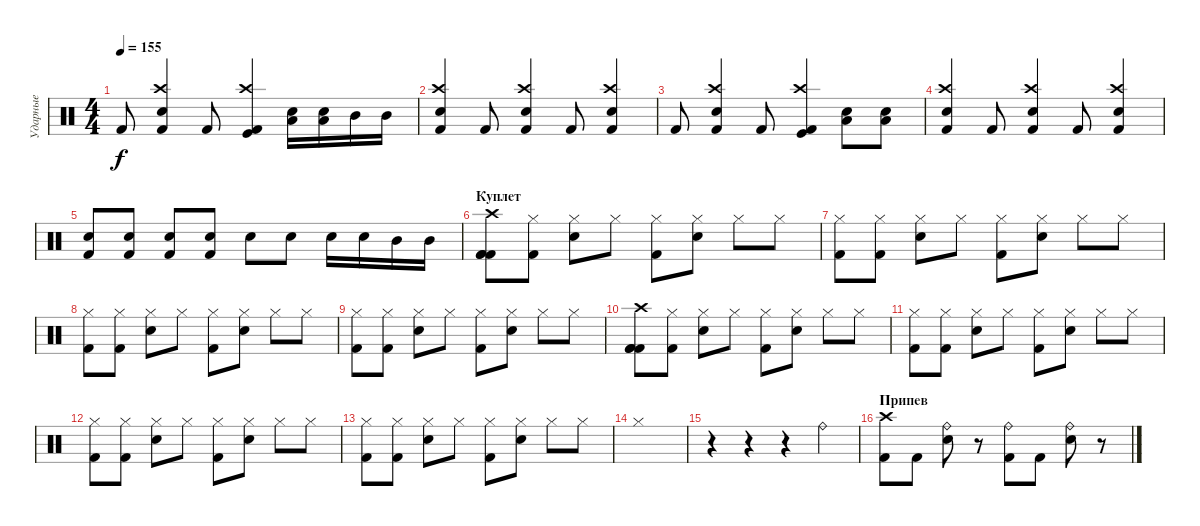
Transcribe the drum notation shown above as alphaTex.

\track ("Ударные" "Ударные") {instrument percussion}
\staff {score}
\articulation defaults
\ts (4 4)
\tempo 155
\clef neutral
\ks c "Kick (hit) 2".8{dy f}
("Crash high (hit)" "Kick (hit) 2" "Snare (hit) 2").4 "Kick (hit) 2".8 ("Crash high (hit)" "Kick (hit) 2" "Kick (hit)").4 ("Low Floor Tom (hit)" "Snare (hit) 2").16 ("Low Floor Tom (hit)" "Snare (hit) 2").16 "Mid Tom (hit)".16 "Mid Tom (hit)".16 |
("Crash high (hit)" "Kick (hit) 2" "Snare (hit) 2").4 "Kick (hit) 2".8 ("Crash high (hit)" "Kick (hit) 2" "Snare (hit) 2").4 "Kick (hit) 2".8 ("Crash high (hit)" "Kick (hit) 2" "Snare (hit) 2").4 |
"Kick (hit) 2".8 ("Crash high (hit)" "Kick (hit) 2" "Snare (hit) 2").4 "Kick (hit) 2".8 ("Crash high (hit)" "Kick (hit) 2" "Kick (hit)").4 ("Low Floor Tom (hit)" "Snare (hit) 2").8 ("Low Floor Tom (hit)" "Snare (hit) 2").8 |
("Crash high (hit)" "Kick (hit) 2" "Snare (hit) 2").4 "Kick (hit) 2".8 ("Crash high (hit)" "Kick (hit) 2" "Snare (hit) 2").4 "Kick (hit) 2".8 ("Crash high (hit)" "Kick (hit) 2" "Snare (hit) 2").4 |
("Kick (hit) 2" "Snare (hit) 2").8 ("Kick (hit) 2" "Snare (hit) 2").8 ("Kick (hit) 2" "Snare (hit) 2").8 ("Kick (hit) 2" "Snare (hit) 2").8 "Snare (hit) 2".8 "Snare (hit) 2".8 "Snare (hit) 2".16 "Snare (hit) 2".16 "Mid Tom (hit)".16 "Mid Tom (hit)".16 |
\section ("" "Куплет")
("Crash high (hit)" "Kick (hit) 2" "Kick (hit) 2" "Kick (hit) 2").8 ("Hi-Hat (closed)" "Kick (hit) 2").8 ("Hi-Hat (closed)" "Snare (hit) 2").8 "Hi-Hat (closed)".8 ("Hi-Hat (closed)" "Kick (hit) 2").8 ("Hi-Hat (closed)" "Snare (hit) 2").8 "Hi-Hat (closed)".8 "Hi-Hat (closed)".8 |
("Hi-Hat (closed)" "Kick (hit) 2").8 ("Hi-Hat (closed)" "Kick (hit) 2").8 ("Hi-Hat (closed)" "Snare (hit) 2").8 "Hi-Hat (closed)".8 ("Hi-Hat (closed)" "Kick (hit) 2").8 ("Hi-Hat (closed)" "Snare (hit) 2").8 "Hi-Hat (closed)".8 "Hi-Hat (closed)".8 |
("Hi-Hat (closed)" "Kick (hit) 2").8 ("Hi-Hat (closed)" "Kick (hit) 2").8 ("Hi-Hat (closed)" "Snare (hit) 2").8 "Hi-Hat (closed)".8 ("Hi-Hat (closed)" "Kick (hit) 2").8 ("Hi-Hat (closed)" "Snare (hit) 2").8 "Hi-Hat (closed)".8 "Hi-Hat (closed)".8 |
("Hi-Hat (closed)" "Kick (hit) 2").8 ("Hi-Hat (closed)" "Kick (hit) 2").8 ("Hi-Hat (closed)" "Snare (hit) 2").8 "Hi-Hat (closed)".8 ("Hi-Hat (closed)" "Kick (hit) 2").8 ("Hi-Hat (closed)" "Snare (hit) 2").8 "Hi-Hat (closed)".8 "Hi-Hat (closed)".8 |
("Crash high (hit)" "Kick (hit) 2" "Kick (hit) 2" "Kick (hit) 2").8 ("Hi-Hat (closed)" "Kick (hit) 2").8 ("Hi-Hat (closed)" "Snare (hit) 2").8 "Hi-Hat (closed)".8 ("Hi-Hat (closed)" "Kick (hit) 2").8 ("Hi-Hat (closed)" "Snare (hit) 2").8 "Hi-Hat (closed)".8 "Hi-Hat (closed)".8 |
("Hi-Hat (closed)" "Kick (hit) 2").8 ("Hi-Hat (closed)" "Kick (hit) 2").8 ("Hi-Hat (closed)" "Snare (hit) 2").8 "Hi-Hat (closed)".8 ("Hi-Hat (closed)" "Kick (hit) 2").8 ("Hi-Hat (closed)" "Snare (hit) 2").8 "Hi-Hat (closed)".8 "Hi-Hat (closed)".8 |
("Hi-Hat (closed)" "Kick (hit) 2").8 ("Hi-Hat (closed)" "Kick (hit) 2").8 ("Hi-Hat (closed)" "Snare (hit) 2").8 "Hi-Hat (closed)".8 ("Hi-Hat (closed)" "Kick (hit) 2").8 ("Hi-Hat (closed)" "Snare (hit) 2").8 "Hi-Hat (closed)".8 "Hi-Hat (closed)".8 |
("Hi-Hat (closed)" "Kick (hit) 2").8 ("Hi-Hat (closed)" "Kick (hit) 2").8 ("Hi-Hat (closed)" "Snare (hit) 2").8 "Hi-Hat (closed)".8 ("Hi-Hat (closed)" "Kick (hit) 2").8 ("Hi-Hat (closed)" "Snare (hit) 2").8 "Hi-Hat (closed)".8 "Hi-Hat (closed)".8 |
"Hi-Hat (closed)".1 |
r.4 r.4 r.4 "Ride (bell)".4 |
\section ("" "Припев")
("Crash high (hit)" "Kick (hit) 2").8 "Kick (hit) 2".8 ("Ride (bell)" "Snare (hit) 2").8 r.8 ("Ride (bell)" "Kick (hit) 2").8 "Kick (hit) 2".8 ("Ride (bell)" "Snare (hit) 2").8 r.8
